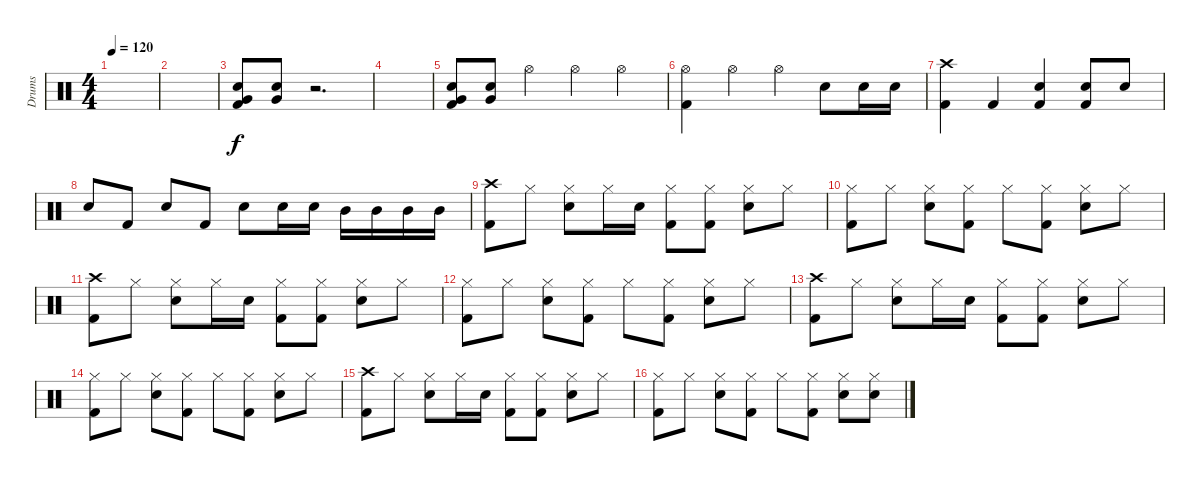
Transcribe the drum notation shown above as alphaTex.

\track ("Drums" "Drums") {instrument percussion}
\staff {score}
\articulation defaults
\ts (4 4)
\tempo 120
\clef neutral
\ks c
|
|
("Very Low Tom (hit)" "Snare (hit) 2" "Kick (hit) 2").8 ("Very Low Tom (hit)" "Snare (hit) 2").8 r.2{d} |
|
("Very Low Tom (hit)" "Snare (hit) 2" "Kick (hit) 2").8 ("Very Low Tom (hit)" "Snare (hit) 2").8 "Hi-Hat (open)".4 "Hi-Hat (open)".4 "Hi-Hat (open)".4 |
("Hi-Hat (open)" "Kick (hit) 2").4 "Hi-Hat (open)".4 "Hi-Hat (open)".4 "Snare (hit) 2".8 "Snare (hit) 2".16 "Snare (hit) 2".16 |
("Crash high (hit)" "Kick (hit) 2").4 "Kick (hit) 2".4 ("Snare (hit) 2" "Kick (hit) 2").4 ("Snare (hit) 2" "Kick (hit) 2").8 "Snare (hit) 2".8 |
"Snare (hit) 2".8 "Kick (hit) 2".8 "Snare (hit) 2".8 "Kick (hit) 2".8 "Snare (hit) 2".8 "Snare (hit) 2".16 "Snare (hit) 2".16 "Mid Tom (hit)".16 "Mid Tom (hit)".16 "Mid Tom (hit)".16 "Mid Tom (hit)".16 |
("Crash high (hit)" "Kick (hit) 2").8 "Hi-Hat (closed)".8 ("Hi-Hat (closed)" "Snare (hit) 2").8 "Hi-Hat (closed)".16 "Snare (hit) 2".16 ("Hi-Hat (closed)" "Kick (hit) 2").8 ("Hi-Hat (closed)" "Kick (hit) 2").8 ("Hi-Hat (closed)" "Snare (hit) 2").8 "Hi-Hat (closed)".8 |
("Hi-Hat (closed)" "Kick (hit) 2").8 "Hi-Hat (closed)".8 ("Hi-Hat (closed)" "Snare (hit) 2").8 ("Hi-Hat (closed)" "Kick (hit) 2").8 "Hi-Hat (closed)".8 ("Hi-Hat (closed)" "Kick (hit) 2").8 ("Hi-Hat (closed)" "Snare (hit) 2").8 "Hi-Hat (closed)".8 |
("Crash high (hit)" "Kick (hit) 2").8 "Hi-Hat (closed)".8 ("Hi-Hat (closed)" "Snare (hit) 2").8 "Hi-Hat (closed)".16 "Snare (hit) 2".16 ("Hi-Hat (closed)" "Kick (hit) 2").8 ("Hi-Hat (closed)" "Kick (hit) 2").8 ("Hi-Hat (closed)" "Snare (hit) 2").8 "Hi-Hat (closed)".8 |
("Hi-Hat (closed)" "Kick (hit) 2").8 "Hi-Hat (closed)".8 ("Hi-Hat (closed)" "Snare (hit) 2").8 ("Hi-Hat (closed)" "Kick (hit) 2").8 "Hi-Hat (closed)".8 ("Hi-Hat (closed)" "Kick (hit) 2").8 ("Hi-Hat (closed)" "Snare (hit) 2").8 "Hi-Hat (closed)".8 |
("Crash high (hit)" "Kick (hit) 2").8 "Hi-Hat (closed)".8 ("Hi-Hat (closed)" "Snare (hit) 2").8 "Hi-Hat (closed)".16 "Snare (hit) 2".16 ("Hi-Hat (closed)" "Kick (hit) 2").8 ("Hi-Hat (closed)" "Kick (hit) 2").8 ("Hi-Hat (closed)" "Snare (hit) 2").8 "Hi-Hat (closed)".8 |
("Hi-Hat (closed)" "Kick (hit) 2").8 "Hi-Hat (closed)".8 ("Hi-Hat (closed)" "Snare (hit) 2").8 ("Hi-Hat (closed)" "Kick (hit) 2").8 "Hi-Hat (closed)".8 ("Hi-Hat (closed)" "Kick (hit) 2").8 ("Hi-Hat (closed)" "Snare (hit) 2").8 "Hi-Hat (closed)".8 |
("Crash high (hit)" "Kick (hit) 2").8 "Hi-Hat (closed)".8 ("Hi-Hat (closed)" "Snare (hit) 2").8 "Hi-Hat (closed)".16 "Snare (hit) 2".16 ("Hi-Hat (closed)" "Kick (hit) 2").8 ("Hi-Hat (closed)" "Kick (hit) 2").8 ("Hi-Hat (closed)" "Snare (hit) 2").8 "Hi-Hat (closed)".8 |
("Hi-Hat (closed)" "Kick (hit) 2").8 "Hi-Hat (closed)".8 ("Hi-Hat (closed)" "Snare (hit) 2").8 ("Hi-Hat (closed)" "Kick (hit) 2").8 "Hi-Hat (closed)".8 ("Hi-Hat (closed)" "Kick (hit) 2").8 ("Hi-Hat (closed)" "Snare (hit) 2").8 ("Hi-Hat (closed)" "Snare (hit) 2").8
